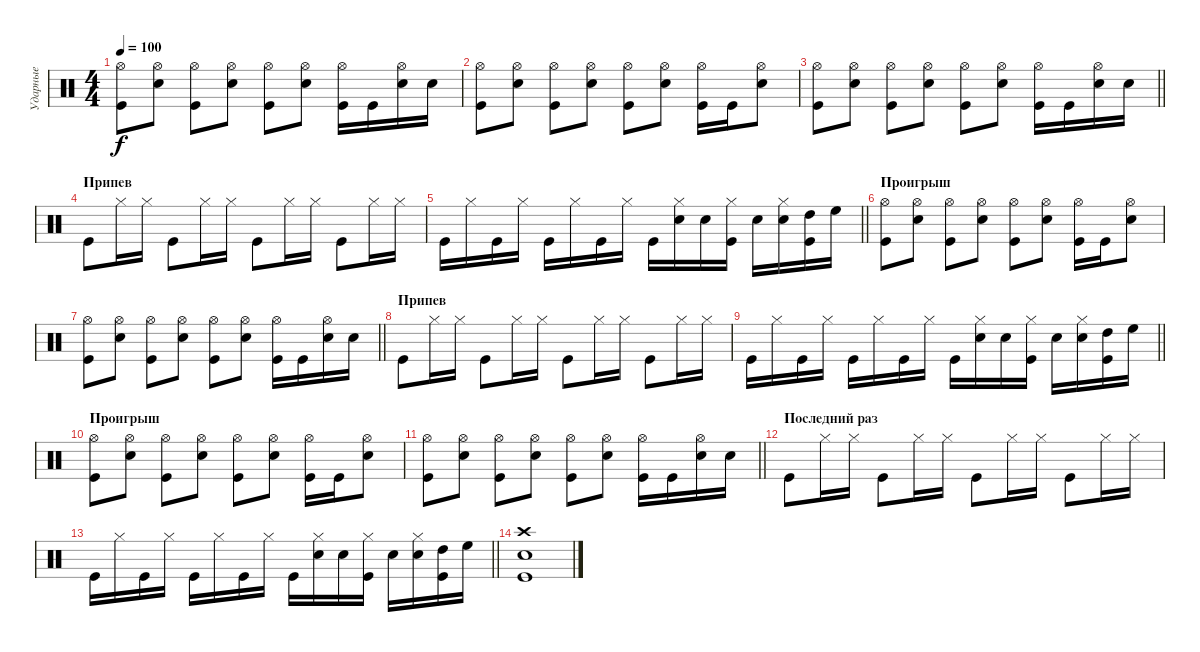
\track ("Ударные" "Ударные") {instrument percussion}
\staff {score}
\articulation defaults
\ts (4 4)
\tempo 100
\clef neutral
\ks c
("Hi-Hat (open)" "Kick (hit)").8{dy f} ("Hi-Hat (open)" "Snare (hit) 2").8 ("Hi-Hat (open)" "Kick (hit)").8 ("Hi-Hat (open)" "Snare (hit) 2").8 ("Hi-Hat (open)" "Kick (hit)").8 ("Hi-Hat (open)" "Snare (hit) 2").8 ("Hi-Hat (open)" "Kick (hit)").16 "Kick (hit)".16 ("Hi-Hat (open)" "Snare (hit) 2").16 "Snare (hit) 2".16 |
("Hi-Hat (open)" "Kick (hit)").8 ("Hi-Hat (open)" "Snare (hit) 2").8 ("Hi-Hat (open)" "Kick (hit)").8 ("Hi-Hat (open)" "Snare (hit) 2").8 ("Hi-Hat (open)" "Kick (hit)").8 ("Hi-Hat (open)" "Snare (hit) 2").8 ("Hi-Hat (open)" "Kick (hit)").16 "Kick (hit)".16 ("Hi-Hat (open)" "Snare (hit) 2").8 |
\barLineRight lightlight
("Hi-Hat (open)" "Kick (hit)").8 ("Hi-Hat (open)" "Snare (hit) 2").8 ("Hi-Hat (open)" "Kick (hit)").8 ("Hi-Hat (open)" "Snare (hit) 2").8 ("Hi-Hat (open)" "Kick (hit)").8 ("Hi-Hat (open)" "Snare (hit) 2").8 ("Hi-Hat (open)" "Kick (hit)").16 "Kick (hit)".16 ("Hi-Hat (open)" "Snare (hit) 2").16 "Snare (hit) 2".16 |
\section ("" "Припев")
"Kick (hit)".8 "Hi-Hat (closed)".16 "Hi-Hat (closed)".16 "Kick (hit)".8 "Hi-Hat (closed)".16 "Hi-Hat (closed)".16 "Kick (hit)".8 "Hi-Hat (closed)".16 "Hi-Hat (closed)".16 "Kick (hit)".8 "Hi-Hat (closed)".16 "Hi-Hat (closed)".16 |
\barLineRight lightlight "Kick (hit)".16 "Hi-Hat (closed)".16 "Kick (hit)".16 "Hi-Hat (closed)".16 "Kick (hit)".16 "Hi-Hat (closed)".16 "Kick (hit)".16 "Hi-Hat (closed)".16 "Kick (hit)".16
("Hi-Hat (closed)" "Snare (hit) 2").16 "Snare (hit) 2".16 ("Hi-Hat (closed)" "Kick (hit)").16 "Snare (hit) 2".16 ("Hi-Hat (closed)" "Snare (hit) 2").16 ("High Tom (hit)" "Kick (hit)").16 "High Floor Tom (hit)".16 |
\section ("" "Проигрыш")
("Hi-Hat (open)" "Kick (hit)").8 ("Hi-Hat (open)" "Snare (hit) 2").8 ("Hi-Hat (open)" "Kick (hit)").8 ("Hi-Hat (open)" "Snare (hit) 2").8 ("Hi-Hat (open)" "Kick (hit)").8 ("Hi-Hat (open)" "Snare (hit) 2").8 ("Hi-Hat (open)" "Kick (hit)").16 "Kick (hit)".16 ("Hi-Hat (open)" "Snare (hit) 2").8 |
\barLineRight lightlight
("Hi-Hat (open)" "Kick (hit)").8 ("Hi-Hat (open)" "Snare (hit) 2").8 ("Hi-Hat (open)" "Kick (hit)").8 ("Hi-Hat (open)" "Snare (hit) 2").8 ("Hi-Hat (open)" "Kick (hit)").8 ("Hi-Hat (open)" "Snare (hit) 2").8 ("Hi-Hat (open)" "Kick (hit)").16 "Kick (hit)".16 ("Hi-Hat (open)" "Snare (hit) 2").16 "Snare (hit) 2".16 |
\section ("" "Припев")
"Kick (hit)".8 "Hi-Hat (closed)".16 "Hi-Hat (closed)".16 "Kick (hit)".8 "Hi-Hat (closed)".16 "Hi-Hat (closed)".16 "Kick (hit)".8 "Hi-Hat (closed)".16 "Hi-Hat (closed)".16 "Kick (hit)".8 "Hi-Hat (closed)".16 "Hi-Hat (closed)".16 |
\barLineRight lightlight "Kick (hit)".16 "Hi-Hat (closed)".16 "Kick (hit)".16 "Hi-Hat (closed)".16 "Kick (hit)".16 "Hi-Hat (closed)".16 "Kick (hit)".16 "Hi-Hat (closed)".16 "Kick (hit)".16
("Hi-Hat (closed)" "Snare (hit) 2").16 "Snare (hit) 2".16 ("Hi-Hat (closed)" "Kick (hit)").16 "Snare (hit) 2".16 ("Hi-Hat (closed)" "Snare (hit) 2").16 ("High Tom (hit)" "Kick (hit)").16 "High Floor Tom (hit)".16 |
\section ("" "Проигрыш")
("Hi-Hat (open)" "Kick (hit)").8 ("Hi-Hat (open)" "Snare (hit) 2").8 ("Hi-Hat (open)" "Kick (hit)").8 ("Hi-Hat (open)" "Snare (hit) 2").8 ("Hi-Hat (open)" "Kick (hit)").8 ("Hi-Hat (open)" "Snare (hit) 2").8 ("Hi-Hat (open)" "Kick (hit)").16 "Kick (hit)".16 ("Hi-Hat (open)" "Snare (hit) 2").8 |
\barLineRight lightlight
("Hi-Hat (open)" "Kick (hit)").8 ("Hi-Hat (open)" "Snare (hit) 2").8 ("Hi-Hat (open)" "Kick (hit)").8 ("Hi-Hat (open)" "Snare (hit) 2").8 ("Hi-Hat (open)" "Kick (hit)").8 ("Hi-Hat (open)" "Snare (hit) 2").8 ("Hi-Hat (open)" "Kick (hit)").16 "Kick (hit)".16 ("Hi-Hat (open)" "Snare (hit) 2").16 "Snare (hit) 2".16 |
\section ("" "Последний раз")
"Kick (hit)".8 "Hi-Hat (closed)".16 "Hi-Hat (closed)".16 "Kick (hit)".8 "Hi-Hat (closed)".16 "Hi-Hat (closed)".16 "Kick (hit)".8 "Hi-Hat (closed)".16 "Hi-Hat (closed)".16 "Kick (hit)".8 "Hi-Hat (closed)".16 "Hi-Hat (closed)".16 |
\barLineRight lightlight "Kick (hit)".16 "Hi-Hat (closed)".16 "Kick (hit)".16 "Hi-Hat (closed)".16 "Kick (hit)".16 "Hi-Hat (closed)".16 "Kick (hit)".16 "Hi-Hat (closed)".16 "Kick (hit)".16
("Hi-Hat (closed)" "Snare (hit) 2").16 "Snare (hit) 2".16 ("Hi-Hat (closed)" "Kick (hit)").16 "Snare (hit) 2".16 ("Hi-Hat (closed)" "Snare (hit) 2").16 ("High Tom (hit)" "Kick (hit)").16 "High Floor Tom (hit)".16 |
("Crash high (hit)" "Snare (hit) 2" "Kick (hit)").1
